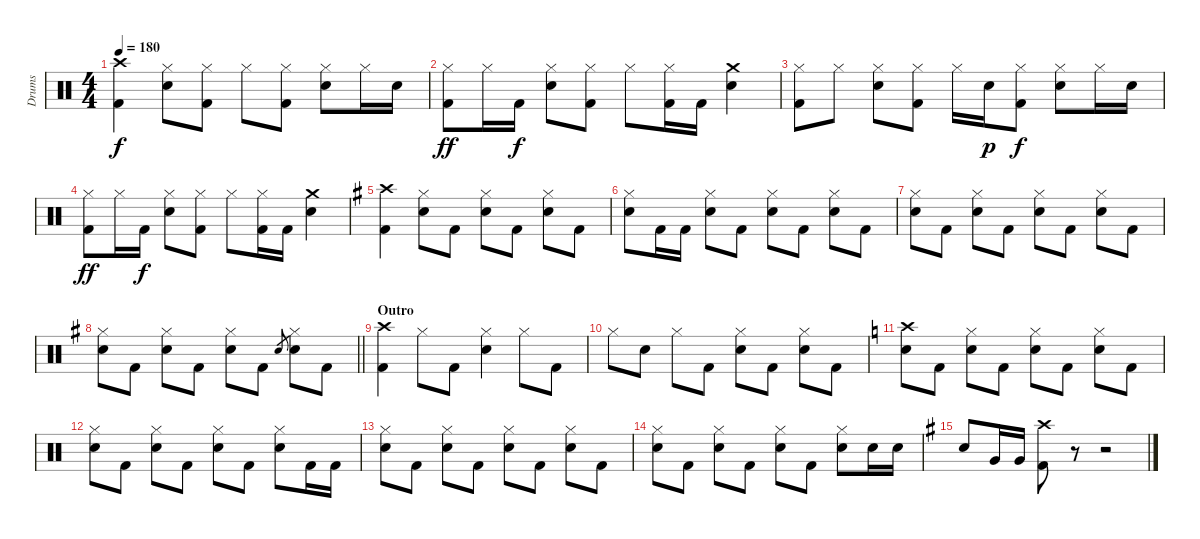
\track ("Drums" "Drums") {instrument percussion}
\staff {score}
\articulation defaults
\ts (4 4)
\tempo 180
\clef neutral
\ks c
("Crash high (hit)" "Kick (hit) 2").4{dy f} ("Hi-Hat (closed)" "Snare (hit) 2").8 ("Hi-Hat (closed)" "Kick (hit) 2").8 "Hi-Hat (closed)".8 ("Hi-Hat (closed)" "Kick (hit) 2").8 ("Hi-Hat (closed)" "Snare (hit) 2").8 "Hi-Hat (closed)".16 "Snare (hit) 2".16 |
("Hi-Hat (closed)" "Kick (hit) 2").8{dy ff} "Hi-Hat (closed)".16 "Kick (hit) 2".16{dy f} ("Hi-Hat (closed)" "Snare (hit) 2").8 ("Hi-Hat (closed)" "Kick (hit) 2").8 "Hi-Hat (closed)".8 ("Hi-Hat (closed)" "Kick (hit) 2").16 "Kick (hit) 2".16 ("Crash medium (hit)" "Snare (hit) 2").4 |
("Hi-Hat (closed)" "Kick (hit) 2").8 "Hi-Hat (closed)".8 ("Hi-Hat (closed)" "Snare (hit) 2").8 ("Hi-Hat (closed)" "Kick (hit) 2").8 "Hi-Hat (closed)".16 "Snare (hit) 2".16{dy p} ("Hi-Hat (closed)" "Kick (hit) 2").8{dy f} ("Hi-Hat (closed)" "Snare (hit) 2").8 "Hi-Hat (closed)".16 "Snare (hit) 2".16 |
("Hi-Hat (closed)" "Kick (hit) 2").8{dy ff} "Hi-Hat (closed)".16 "Kick (hit) 2".16{dy f} ("Hi-Hat (closed)" "Snare (hit) 2").8 ("Hi-Hat (closed)" "Kick (hit) 2").8 "Hi-Hat (closed)".8 ("Hi-Hat (closed)" "Kick (hit) 2").16 "Kick (hit) 2".16 ("Crash medium (hit)" "Snare (hit) 2").4 |
\ks g
("Crash high (hit)" "Kick (hit) 2").4 ("Hi-Hat (closed)" "Snare (hit) 2").8 "Kick (hit) 2".8 ("Hi-Hat (closed)" "Snare (hit) 2").8 "Kick (hit) 2".8 ("Hi-Hat (closed)" "Snare (hit) 2").8 "Kick (hit) 2".8 |
("Hi-Hat (closed)" "Snare (hit) 2").8 "Kick (hit) 2".16 "Kick (hit) 2".16 ("Hi-Hat (closed)" "Snare (hit) 2").8 "Kick (hit) 2".8 ("Hi-Hat (closed)" "Snare (hit) 2").8 "Kick (hit) 2".8 ("Hi-Hat (closed)" "Snare (hit) 2").8 "Kick (hit) 2".8 |
("Hi-Hat (closed)" "Snare (hit) 2").8 "Kick (hit) 2".8 ("Hi-Hat (closed)" "Snare (hit) 2").8 "Kick (hit) 2".8 ("Hi-Hat (closed)" "Snare (hit) 2").8 "Kick (hit) 2".8 ("Hi-Hat (closed)" "Snare (hit) 2").8 "Kick (hit) 2".8 |
\barLineRight lightlight
("Hi-Hat (closed)" "Snare (hit) 2").8 "Kick (hit) 2".8 ("Hi-Hat (closed)" "Snare (hit) 2").8 "Kick (hit) 2".8 ("Hi-Hat (closed)" "Snare (hit) 2").8 "Kick (hit) 2".8 "Snare (hit) 2".8{gr} ("Hi-Hat (closed)" "Snare (hit) 2").8 "Kick (hit) 2".8 |
\section ("" "Outro")
("Crash high (hit)" "Kick (hit) 2").4 "Hi-Hat (closed)".8 "Kick (hit) 2".8 ("Hi-Hat (closed)" "Snare (hit) 2").4 "Hi-Hat (closed)".8 "Kick (hit) 2".8 |
"Hi-Hat (closed)".8 "Snare (hit) 2".8 "Hi-Hat (closed)".8 "Kick (hit) 2".8 ("Hi-Hat (closed)" "Snare (hit) 2").8 "Kick (hit) 2".8 ("Hi-Hat (closed)" "Snare (hit) 2").8 "Kick (hit) 2".8 |
\ks c
("Crash high (hit)" "Snare (hit) 2").8 "Kick (hit) 2".8 ("Hi-Hat (closed)" "Snare (hit) 2").8 "Kick (hit) 2".8 ("Hi-Hat (closed)" "Snare (hit) 2").8 "Kick (hit) 2".8 ("Hi-Hat (closed)" "Snare (hit) 2").8 "Kick (hit) 2".8 |
("Hi-Hat (closed)" "Snare (hit) 2").8 "Kick (hit) 2".8 ("Hi-Hat (closed)" "Snare (hit) 2").8 "Kick (hit) 2".8 ("Hi-Hat (closed)" "Snare (hit) 2").8 "Kick (hit) 2".8 ("Hi-Hat (closed)" "Snare (hit) 2").8 "Kick (hit) 2".16 "Kick (hit) 2".16 |
("Hi-Hat (closed)" "Snare (hit) 2").8 "Kick (hit) 2".8 ("Hi-Hat (closed)" "Snare (hit) 2").8 "Kick (hit) 2".8 ("Hi-Hat (closed)" "Snare (hit) 2").8 "Kick (hit) 2".8 ("Hi-Hat (closed)" "Snare (hit) 2").8 "Kick (hit) 2".8 |
("Hi-Hat (closed)" "Snare (hit) 2").8 "Kick (hit) 2".8 ("Hi-Hat (closed)" "Snare (hit) 2").8 "Kick (hit) 2".8 ("Hi-Hat (closed)" "Snare (hit) 2").8 "Kick (hit) 2".8 ("Hi-Hat (closed)" "Snare (hit) 2").8 "Snare (hit) 2".16 "Snare (hit) 2".16 |
\ks g "Snare (hit) 2".8 "Very Low Tom (hit)".16 "Very Low Tom (hit)".16
("Crash high (hit)" "Kick (hit) 2").8 r.8 r.2
